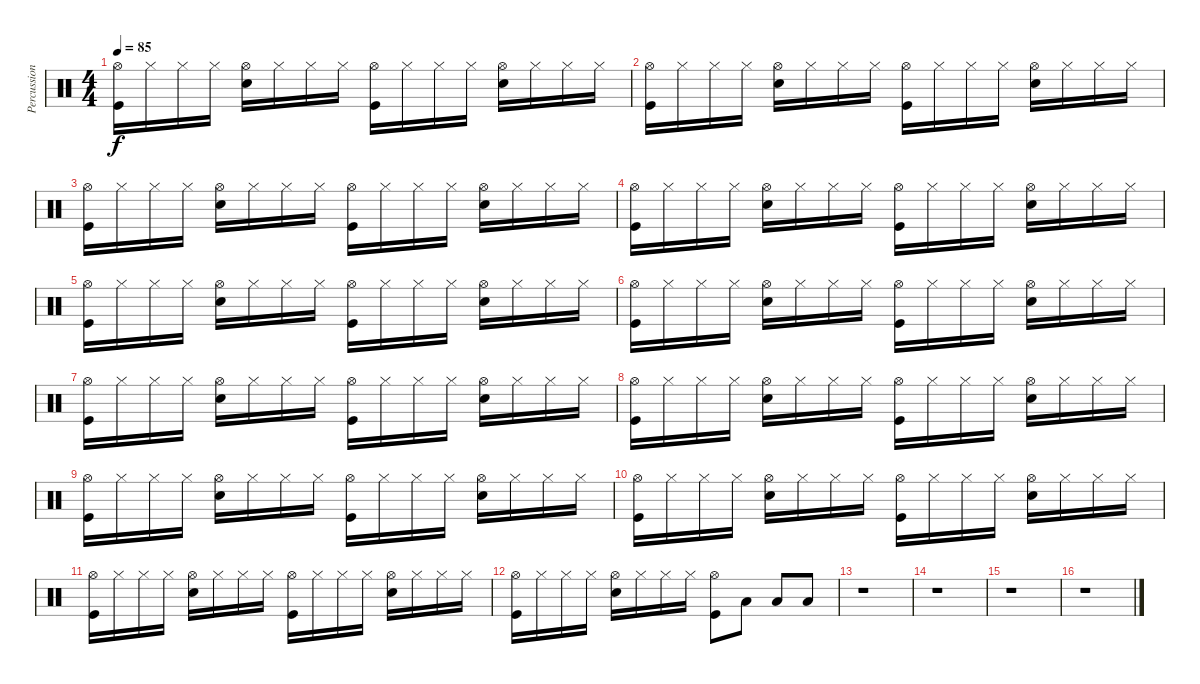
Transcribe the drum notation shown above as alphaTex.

\track ("Percussions" "Percussion") {instrument percussion}
\staff {score}
\articulation defaults
\ts (4 4)
\tempo 85
\clef neutral
\ks c
("Hi-Hat (open)" "Kick (hit)").16{dy f} "Hi-Hat (closed)".16 "Hi-Hat (closed)".16 "Hi-Hat (closed)".16 ("Hi-Hat (open)" "Snare (hit) 2").16 "Hi-Hat (closed)".16 "Hi-Hat (closed)".16 "Hi-Hat (closed)".16 ("Hi-Hat (open)" "Kick (hit)").16 "Hi-Hat (closed)".16 "Hi-Hat (closed)".16 "Hi-Hat (closed)".16 ("Hi-Hat (open)" "Snare (hit) 2").16 "Hi-Hat (closed)".16 "Hi-Hat (closed)".16 "Hi-Hat (closed)".16 |
("Hi-Hat (open)" "Kick (hit)").16 "Hi-Hat (closed)".16 "Hi-Hat (closed)".16 "Hi-Hat (closed)".16 ("Hi-Hat (open)" "Snare (hit) 2").16 "Hi-Hat (closed)".16 "Hi-Hat (closed)".16 "Hi-Hat (closed)".16 ("Hi-Hat (open)" "Kick (hit)").16 "Hi-Hat (closed)".16 "Hi-Hat (closed)".16 "Hi-Hat (closed)".16 ("Hi-Hat (open)" "Snare (hit) 2").16 "Hi-Hat (closed)".16 "Hi-Hat (closed)".16 "Hi-Hat (closed)".16 |
("Hi-Hat (open)" "Kick (hit)").16 "Hi-Hat (closed)".16 "Hi-Hat (closed)".16 "Hi-Hat (closed)".16 ("Hi-Hat (open)" "Snare (hit) 2").16 "Hi-Hat (closed)".16 "Hi-Hat (closed)".16 "Hi-Hat (closed)".16 ("Hi-Hat (open)" "Kick (hit)").16 "Hi-Hat (closed)".16 "Hi-Hat (closed)".16 "Hi-Hat (closed)".16 ("Hi-Hat (open)" "Snare (hit) 2").16 "Hi-Hat (closed)".16 "Hi-Hat (closed)".16 "Hi-Hat (closed)".16 |
("Hi-Hat (open)" "Kick (hit)").16 "Hi-Hat (closed)".16 "Hi-Hat (closed)".16 "Hi-Hat (closed)".16 ("Hi-Hat (open)" "Snare (hit) 2").16 "Hi-Hat (closed)".16 "Hi-Hat (closed)".16 "Hi-Hat (closed)".16 ("Hi-Hat (open)" "Kick (hit)").16 "Hi-Hat (closed)".16 "Hi-Hat (closed)".16 "Hi-Hat (closed)".16 ("Hi-Hat (open)" "Snare (hit) 2").16 "Hi-Hat (closed)".16 "Hi-Hat (closed)".16 "Hi-Hat (closed)".16 |
("Hi-Hat (open)" "Kick (hit)").16 "Hi-Hat (closed)".16 "Hi-Hat (closed)".16 "Hi-Hat (closed)".16 ("Hi-Hat (open)" "Snare (hit) 2").16 "Hi-Hat (closed)".16 "Hi-Hat (closed)".16 "Hi-Hat (closed)".16 ("Hi-Hat (open)" "Kick (hit)").16 "Hi-Hat (closed)".16 "Hi-Hat (closed)".16 "Hi-Hat (closed)".16 ("Hi-Hat (open)" "Snare (hit) 2").16 "Hi-Hat (closed)".16 "Hi-Hat (closed)".16 "Hi-Hat (closed)".16 |
("Hi-Hat (open)" "Kick (hit)").16 "Hi-Hat (closed)".16 "Hi-Hat (closed)".16 "Hi-Hat (closed)".16 ("Hi-Hat (open)" "Snare (hit) 2").16 "Hi-Hat (closed)".16 "Hi-Hat (closed)".16 "Hi-Hat (closed)".16 ("Hi-Hat (open)" "Kick (hit)").16 "Hi-Hat (closed)".16 "Hi-Hat (closed)".16 "Hi-Hat (closed)".16 ("Hi-Hat (open)" "Snare (hit) 2").16 "Hi-Hat (closed)".16 "Hi-Hat (closed)".16 "Hi-Hat (closed)".16 |
("Hi-Hat (open)" "Kick (hit)").16 "Hi-Hat (closed)".16 "Hi-Hat (closed)".16 "Hi-Hat (closed)".16 ("Hi-Hat (open)" "Snare (hit) 2").16 "Hi-Hat (closed)".16 "Hi-Hat (closed)".16 "Hi-Hat (closed)".16 ("Hi-Hat (open)" "Kick (hit)").16 "Hi-Hat (closed)".16 "Hi-Hat (closed)".16 "Hi-Hat (closed)".16 ("Hi-Hat (open)" "Snare (hit) 2").16 "Hi-Hat (closed)".16 "Hi-Hat (closed)".16 "Hi-Hat (closed)".16 |
("Hi-Hat (open)" "Kick (hit)").16 "Hi-Hat (closed)".16 "Hi-Hat (closed)".16 "Hi-Hat (closed)".16 ("Hi-Hat (open)" "Snare (hit) 2").16 "Hi-Hat (closed)".16 "Hi-Hat (closed)".16 "Hi-Hat (closed)".16 ("Hi-Hat (open)" "Kick (hit)").16 "Hi-Hat (closed)".16 "Hi-Hat (closed)".16 "Hi-Hat (closed)".16 ("Hi-Hat (open)" "Snare (hit) 2").16 "Hi-Hat (closed)".16 "Hi-Hat (closed)".16 "Hi-Hat (closed)".16 |
("Hi-Hat (open)" "Kick (hit)").16 "Hi-Hat (closed)".16 "Hi-Hat (closed)".16 "Hi-Hat (closed)".16 ("Hi-Hat (open)" "Snare (hit) 2").16 "Hi-Hat (closed)".16 "Hi-Hat (closed)".16 "Hi-Hat (closed)".16 ("Hi-Hat (open)" "Kick (hit)").16 "Hi-Hat (closed)".16 "Hi-Hat (closed)".16 "Hi-Hat (closed)".16 ("Hi-Hat (open)" "Snare (hit) 2").16 "Hi-Hat (closed)".16 "Hi-Hat (closed)".16 "Hi-Hat (closed)".16 |
("Hi-Hat (open)" "Kick (hit)").16 "Hi-Hat (closed)".16 "Hi-Hat (closed)".16 "Hi-Hat (closed)".16 ("Hi-Hat (open)" "Snare (hit) 2").16 "Hi-Hat (closed)".16 "Hi-Hat (closed)".16 "Hi-Hat (closed)".16 ("Hi-Hat (open)" "Kick (hit)").16 "Hi-Hat (closed)".16 "Hi-Hat (closed)".16 "Hi-Hat (closed)".16 ("Hi-Hat (open)" "Snare (hit) 2").16 "Hi-Hat (closed)".16 "Hi-Hat (closed)".16 "Hi-Hat (closed)".16 |
("Hi-Hat (open)" "Kick (hit)").16 "Hi-Hat (closed)".16 "Hi-Hat (closed)".16 "Hi-Hat (closed)".16 ("Hi-Hat (open)" "Snare (hit) 2").16 "Hi-Hat (closed)".16 "Hi-Hat (closed)".16 "Hi-Hat (closed)".16 ("Hi-Hat (open)" "Kick (hit)").16 "Hi-Hat (closed)".16 "Hi-Hat (closed)".16 "Hi-Hat (closed)".16 ("Hi-Hat (open)" "Snare (hit) 2").16 "Hi-Hat (closed)".16 "Hi-Hat (closed)".16 "Hi-Hat (closed)".16 |
("Hi-Hat (open)" "Kick (hit)").16 "Hi-Hat (closed)".16 "Hi-Hat (closed)".16 "Hi-Hat (closed)".16 ("Hi-Hat (open)" "Snare (hit) 2").16 "Hi-Hat (closed)".16 "Hi-Hat (closed)".16 "Hi-Hat (closed)".16 ("Hi-Hat (open)" "Kick (hit)").8 "Low Tom (hit)".8 "Low Tom (hit)".8 "Low Tom (hit)".8 |
r.1 |
r.1 |
r.1 |
r.1
